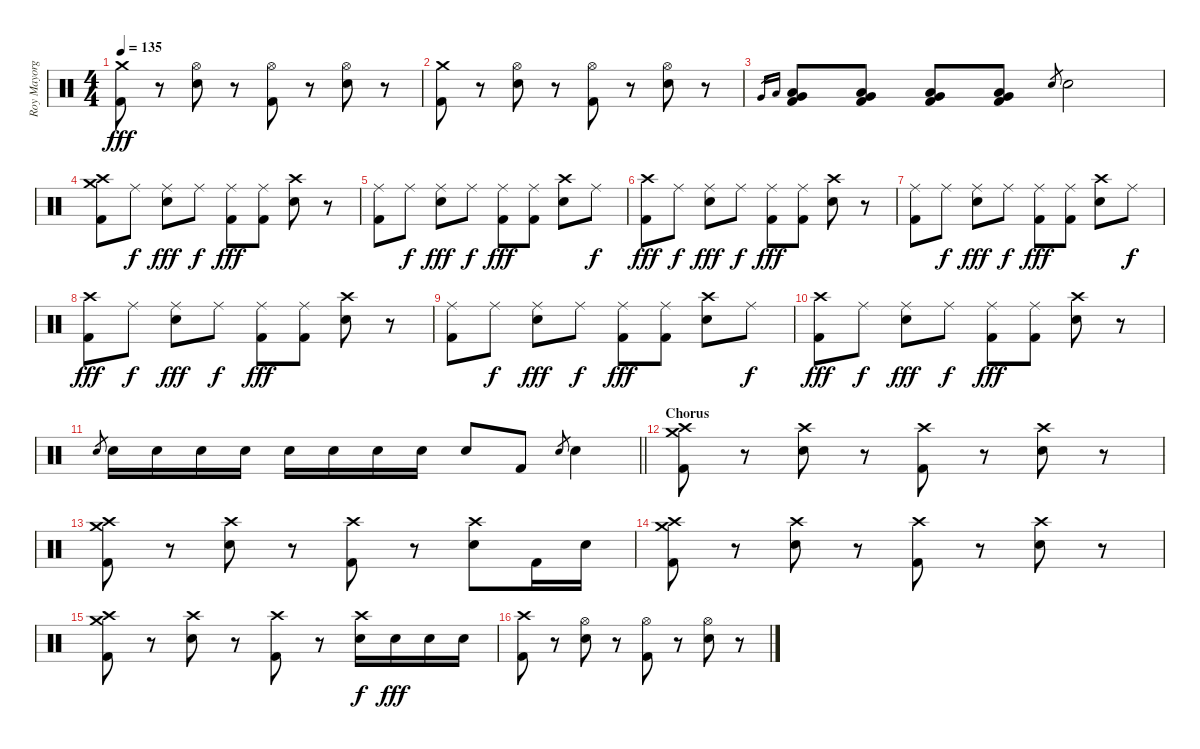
\track ("Roy Mayorga" "Roy Mayorg") {instrument percussion}
\staff {score}
\articulation defaults
\ts (4 4)
\tempo 135
\clef neutral
\ks c
("Crash medium (hit)" "Kick (hit) 2").8{dy fff} r.8 ("Hi-Hat (open)" "Electric Snare (hit)").8 r.8 ("Hi-Hat (open)" "Kick (hit) 2").8 r.8 ("Hi-Hat (open)" "Electric Snare (hit)").8 r.8 |
("Crash medium (hit)" "Kick (hit) 2").8 r.8 ("Hi-Hat (open)" "Electric Snare (hit)").8 r.8 ("Hi-Hat (open)" "Kick (hit) 2").8 r.8 ("Hi-Hat (open)" "Electric Snare (hit)").8 r.8 |
"Very Low Tom (hit)".16{gr} "Low Floor Tom (hit)".16{gr} ("Very Low Tom (hit)" "Low Floor Tom (hit)" "Kick (hit) 2").8 ("Very Low Tom (hit)" "Low Floor Tom (hit)" "Kick (hit) 2").8 ("Very Low Tom (hit)" "Low Floor Tom (hit)" "Kick (hit) 2").8 ("Very Low Tom (hit)" "Low Floor Tom (hit)" "Kick (hit) 2").8 "Electric Snare (hit)".8{gr} "Electric Snare (hit)".2 |
("Crash high (hit)" "Crash medium (hit)" "Kick (hit) 2").8 "Ride (middle)".8{dy f} ("Ride (middle)" "Electric Snare (hit)").8{dy fff} "Ride (middle)".8{dy f} ("Ride (middle)" "Kick (hit) 2").8{dy fff} ("Ride (middle)" "Kick (hit) 2").8 ("Crash high (hit)" "Electric Snare (hit)").8 r.8 |
("Ride (middle)" "Kick (hit) 2").8 "Ride (middle)".8{dy f} ("Ride (middle)" "Electric Snare (hit)").8{dy fff} "Ride (middle)".8{dy f} ("Ride (middle)" "Kick (hit) 2").8{dy fff} ("Ride (middle)" "Kick (hit) 2").8 ("Crash high (hit)" "Electric Snare (hit)").8 "Ride (middle)".8{dy f} |
("Crash high (hit)" "Kick (hit) 2").8{dy fff} "Ride (middle)".8{dy f} ("Ride (middle)" "Electric Snare (hit)").8{dy fff} "Ride (middle)".8{dy f} ("Ride (middle)" "Kick (hit) 2").8{dy fff} ("Ride (middle)" "Kick (hit) 2").8 ("Crash high (hit)" "Electric Snare (hit)").8 r.8 |
("Ride (middle)" "Kick (hit) 2").8 "Ride (middle)".8{dy f} ("Ride (middle)" "Electric Snare (hit)").8{dy fff} "Ride (middle)".8{dy f} ("Ride (middle)" "Kick (hit) 2").8{dy fff} ("Ride (middle)" "Kick (hit) 2").8 ("Crash high (hit)" "Electric Snare (hit)").8 "Ride (middle)".8{dy f} |
("Crash high (hit)" "Kick (hit) 2").8{dy fff} "Ride (middle)".8{dy f} ("Ride (middle)" "Electric Snare (hit)").8{dy fff} "Ride (middle)".8{dy f} ("Ride (middle)" "Kick (hit) 2").8{dy fff} ("Ride (middle)" "Kick (hit) 2").8 ("Crash high (hit)" "Electric Snare (hit)").8 r.8 |
("Ride (middle)" "Kick (hit) 2").8 "Ride (middle)".8{dy f} ("Ride (middle)" "Electric Snare (hit)").8{dy fff} "Ride (middle)".8{dy f} ("Ride (middle)" "Kick (hit) 2").8{dy fff} ("Ride (middle)" "Kick (hit) 2").8 ("Crash high (hit)" "Electric Snare (hit)").8 "Ride (middle)".8{dy f} |
("Crash high (hit)" "Kick (hit) 2").8{dy fff} "Ride (middle)".8{dy f} ("Ride (middle)" "Electric Snare (hit)").8{dy fff} "Ride (middle)".8{dy f} ("Ride (middle)" "Kick (hit) 2").8{dy fff} ("Ride (middle)" "Kick (hit) 2").8 ("Crash high (hit)" "Electric Snare (hit)").8 r.8 |
\barLineRight lightlight "Electric Snare (hit)".8{gr} "Electric Snare (hit)".16 "Electric Snare (hit)".16 "Electric Snare (hit)".16 "Electric Snare (hit)".16 "Electric Snare (hit)".16 "Electric Snare (hit)".16 "Electric Snare (hit)".16 "Electric Snare (hit)".16 "Electric Snare (hit)".8 "Kick (hit) 2".8 "Electric Snare (hit)".8{gr} "Electric Snare (hit)".4
|
\section ("" "Chorus")
("Crash medium (hit)" "Crash high (hit)" "Kick (hit) 2").8 r.8 ("Crash high (hit)" "Electric Snare (hit)").8 r.8 ("Crash high (hit)" "Kick (hit) 2").8 r.8 ("Crash high (hit)" "Electric Snare (hit)").8 r.8 |
("Crash medium (hit)" "Crash high (hit)" "Kick (hit) 2").8 r.8 ("Crash high (hit)" "Electric Snare (hit)").8 r.8 ("Crash high (hit)" "Kick (hit) 2").8 r.8 ("Crash high (hit)" "Electric Snare (hit)").8 "Kick (hit) 2".16 "Electric Snare (hit)".16 |
("Crash medium (hit)" "Crash high (hit)" "Kick (hit) 2").8 r.8 ("Crash high (hit)" "Electric Snare (hit)").8 r.8 ("Crash high (hit)" "Kick (hit) 2").8 r.8 ("Crash high (hit)" "Electric Snare (hit)").8 r.8 |
("Crash medium (hit)" "Crash high (hit)" "Kick (hit) 2").8 r.8 ("Crash high (hit)" "Electric Snare (hit)").8 r.8 ("Crash high (hit)" "Kick (hit) 2").8 r.8 ("Crash high (hit)" "Electric Snare (hit)").16{dy f} "Electric Snare (hit)".16{dy fff} "Electric Snare (hit)".16 "Electric Snare (hit)".16 |
("Crash high (hit)" "Kick (hit) 2").8 r.8 ("Hi-Hat (open)" "Electric Snare (hit)").8 r.8 ("Hi-Hat (open)" "Kick (hit) 2").8 r.8 ("Hi-Hat (open)" "Electric Snare (hit)").8 r.8
